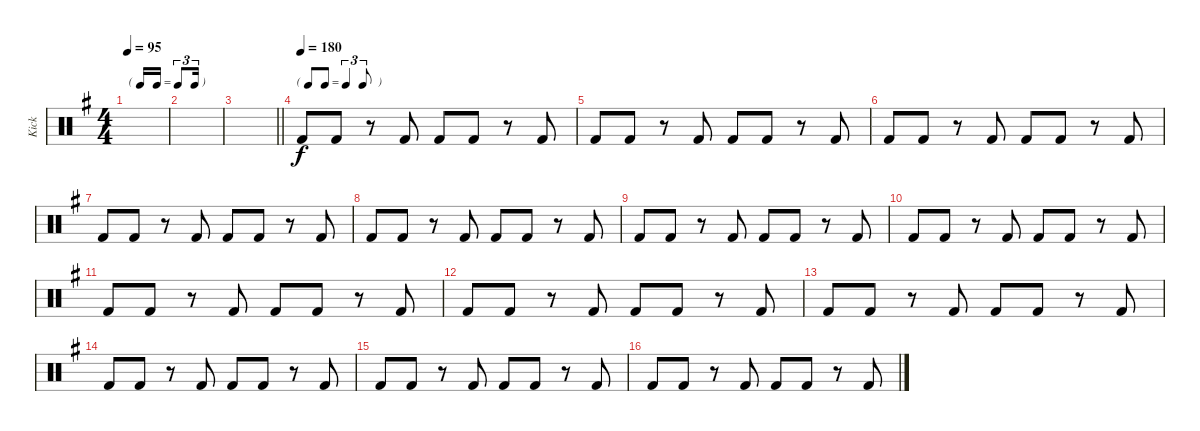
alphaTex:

\track ("Kick" "Kick") {instrument percussion}
\staff {score}
\articulation defaults
\ts (4 4)
\tf triplet16th
\tempo 95
\clef neutral
\ks eminor
|
|
\barLineRight lightlight
|
\tf triplet8th
\tempo (180)
"Kick (hit) 2".8 "Kick (hit) 2".8 r.8 "Kick (hit) 2".8 "Kick (hit) 2".8 "Kick (hit) 2".8 r.8 "Kick (hit) 2".8 |
"Kick (hit) 2".8 "Kick (hit) 2".8 r.8 "Kick (hit) 2".8 "Kick (hit) 2".8 "Kick (hit) 2".8 r.8 "Kick (hit) 2".8 |
"Kick (hit) 2".8 "Kick (hit) 2".8 r.8 "Kick (hit) 2".8 "Kick (hit) 2".8 "Kick (hit) 2".8 r.8 "Kick (hit) 2".8 |
"Kick (hit) 2".8 "Kick (hit) 2".8 r.8 "Kick (hit) 2".8 "Kick (hit) 2".8 "Kick (hit) 2".8 r.8 "Kick (hit) 2".8 |
"Kick (hit) 2".8 "Kick (hit) 2".8 r.8 "Kick (hit) 2".8 "Kick (hit) 2".8 "Kick (hit) 2".8 r.8 "Kick (hit) 2".8 |
"Kick (hit) 2".8 "Kick (hit) 2".8 r.8 "Kick (hit) 2".8 "Kick (hit) 2".8 "Kick (hit) 2".8 r.8 "Kick (hit) 2".8 |
"Kick (hit) 2".8 "Kick (hit) 2".8 r.8 "Kick (hit) 2".8 "Kick (hit) 2".8 "Kick (hit) 2".8 r.8 "Kick (hit) 2".8 |
"Kick (hit) 2".8 "Kick (hit) 2".8 r.8 "Kick (hit) 2".8 "Kick (hit) 2".8 "Kick (hit) 2".8 r.8 "Kick (hit) 2".8 |
"Kick (hit) 2".8 "Kick (hit) 2".8 r.8 "Kick (hit) 2".8 "Kick (hit) 2".8 "Kick (hit) 2".8 r.8 "Kick (hit) 2".8 |
"Kick (hit) 2".8 "Kick (hit) 2".8 r.8 "Kick (hit) 2".8 "Kick (hit) 2".8 "Kick (hit) 2".8 r.8 "Kick (hit) 2".8 |
"Kick (hit) 2".8 "Kick (hit) 2".8 r.8 "Kick (hit) 2".8 "Kick (hit) 2".8 "Kick (hit) 2".8 r.8 "Kick (hit) 2".8 |
"Kick (hit) 2".8 "Kick (hit) 2".8 r.8 "Kick (hit) 2".8 "Kick (hit) 2".8 "Kick (hit) 2".8 r.8 "Kick (hit) 2".8 |
"Kick (hit) 2".8 "Kick (hit) 2".8 r.8 "Kick (hit) 2".8 "Kick (hit) 2".8 "Kick (hit) 2".8 r.8 "Kick (hit) 2".8
